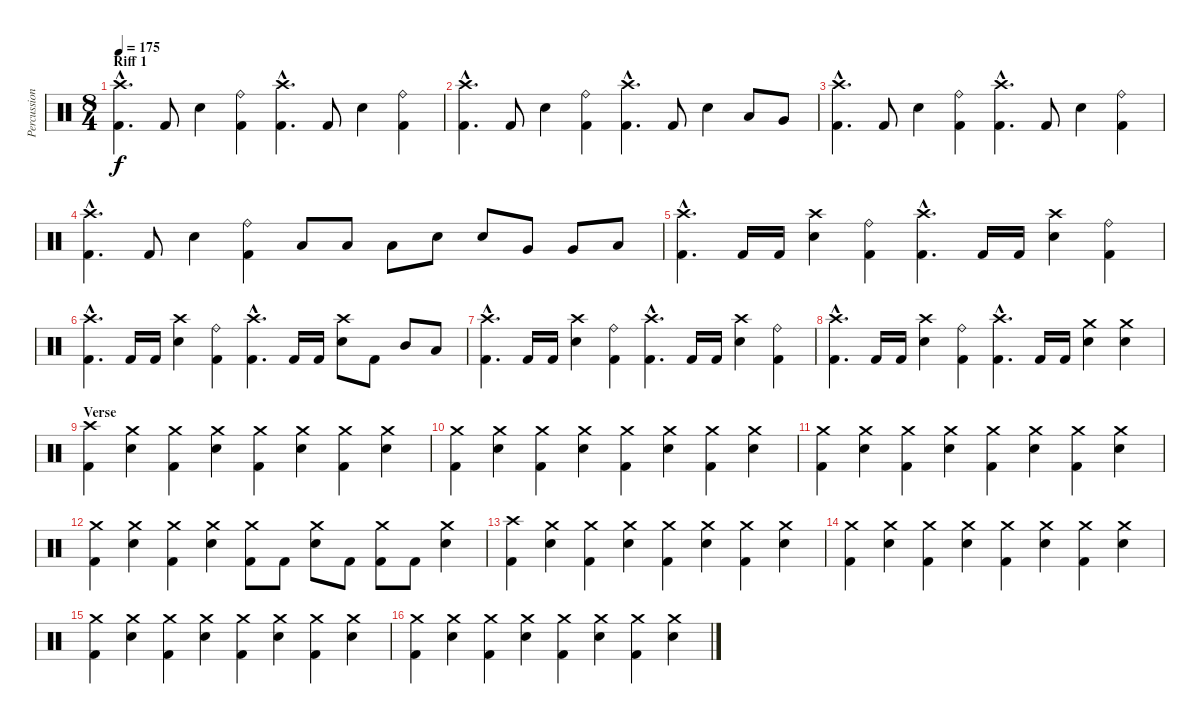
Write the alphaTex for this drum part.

\track ("Percussion" "Percussion") {instrument percussion}
\staff {score}
\articulation defaults
\ts (8 4)
\section ("" "Riff 1")
\tempo 175
\clef neutral
\ks c
("Kick (hit) 2"{hac} "Crash high (hit)"{hac}).4{d dy f} "Kick (hit) 2".8 "Electric Snare (hit)".4 ("Kick (hit) 2" "Ride (bell)").4 ("Kick (hit) 2"{hac} "Crash high (hit)"{hac}).4{d} "Kick (hit) 2".8 "Electric Snare (hit)".4 ("Kick (hit) 2" "Ride (bell)").4 |
("Kick (hit) 2"{hac} "Crash high (hit)"{hac}).4{d} "Kick (hit) 2".8 "Electric Snare (hit)".4 ("Kick (hit) 2" "Ride (bell)").4 ("Kick (hit) 2"{hac} "Crash high (hit)"{hac}).4{d} "Kick (hit) 2".8 "Electric Snare (hit)".4 "Low Tom (hit)".8 "Very Low Tom (hit)".8 |
("Kick (hit) 2"{hac} "Crash high (hit)"{hac}).4{d} "Kick (hit) 2".8 "Electric Snare (hit)".4 ("Kick (hit) 2" "Ride (bell)").4 ("Kick (hit) 2"{hac} "Crash high (hit)"{hac}).4{d} "Kick (hit) 2".8 "Electric Snare (hit)".4 ("Kick (hit) 2" "Ride (bell)").4 |
("Kick (hit) 2"{hac} "Crash high (hit)"{hac}).4{d} "Kick (hit) 2".8 "Electric Snare (hit)".4 ("Kick (hit) 2" "Ride (bell)").4 "Low Tom (hit)".8 "Low Tom (hit)".8 "Low Tom (hit)".8 "Electric Snare (hit)".8 "Electric Snare (hit)".8 "Very Low Tom (hit)".8 "Very Low Tom (hit)".8 "Low Floor Tom (hit)".8 |
("Kick (hit) 2"{hac} "Crash high (hit)"{hac}).4{d} "Kick (hit) 2".16 "Kick (hit) 2".16 ("Electric Snare (hit)" "Crash high (hit)").4 ("Kick (hit) 2" "Ride (bell)").4 ("Kick (hit) 2"{hac} "Crash high (hit)"{hac}).4{d} "Kick (hit) 2".16 "Kick (hit) 2".16 ("Electric Snare (hit)" "Crash high (hit)").4 ("Kick (hit) 2" "Ride (bell)").4 |
("Kick (hit) 2"{hac} "Crash high (hit)"{hac}).4{d} "Kick (hit) 2".16 "Kick (hit) 2".16 ("Electric Snare (hit)" "Crash high (hit)").4 ("Kick (hit) 2" "Ride (bell)").4 ("Kick (hit) 2"{hac} "Crash high (hit)"{hac}).4{d} "Kick (hit) 2".16 "Kick (hit) 2".16 ("Electric Snare (hit)" "Crash high (hit)").8 "Kick (hit) 2".8 "Mid Tom (hit)".8 "Low Tom (hit)".8 |
("Kick (hit) 2"{hac} "Crash high (hit)"{hac}).4{d} "Kick (hit) 2".16 "Kick (hit) 2".16 ("Electric Snare (hit)" "Crash high (hit)").4 ("Kick (hit) 2" "Ride (bell)").4 ("Kick (hit) 2"{hac} "Crash high (hit)"{hac}).4{d} "Kick (hit) 2".16 "Kick (hit) 2".16 ("Electric Snare (hit)" "Crash high (hit)").4 ("Kick (hit) 2" "Ride (bell)").4 |
("Kick (hit) 2"{hac} "Crash high (hit)"{hac}).4{d} "Kick (hit) 2".16 "Kick (hit) 2".16 ("Electric Snare (hit)" "Crash high (hit)").4 ("Kick (hit) 2" "Ride (bell)").4 ("Kick (hit) 2"{hac} "Crash high (hit)"{hac}).4{d} "Kick (hit) 2".16 "Kick (hit) 2".16 ("Electric Snare (hit)" "Crash medium (hit)").4 ("Electric Snare (hit)" "Crash medium (hit)").4 |
\section ("" "Verse")
("Kick (hit) 2" "Crash high (hit)").4 ("Electric Snare (hit)" "Crash medium (hit)").4 ("Kick (hit) 2" "Crash medium (hit)").4 ("Electric Snare (hit)" "Crash medium (hit)").4 ("Kick (hit) 2" "Crash medium (hit)").4 ("Electric Snare (hit)" "Crash medium (hit)").4 ("Kick (hit) 2" "Crash medium (hit)").4 ("Electric Snare (hit)" "Crash medium (hit)").4 |
("Kick (hit) 2" "Crash medium (hit)").4 ("Electric Snare (hit)" "Crash medium (hit)").4 ("Kick (hit) 2" "Crash medium (hit)").4 ("Electric Snare (hit)" "Crash medium (hit)").4 ("Kick (hit) 2" "Crash medium (hit)").4 ("Electric Snare (hit)" "Crash medium (hit)").4 ("Kick (hit) 2" "Crash medium (hit)").4 ("Electric Snare (hit)" "Crash medium (hit)").4 |
("Kick (hit) 2" "Crash medium (hit)").4 ("Electric Snare (hit)" "Crash medium (hit)").4 ("Kick (hit) 2" "Crash medium (hit)").4 ("Electric Snare (hit)" "Crash medium (hit)").4 ("Kick (hit) 2" "Crash medium (hit)").4 ("Electric Snare (hit)" "Crash medium (hit)").4 ("Kick (hit) 2" "Crash medium (hit)").4 ("Electric Snare (hit)" "Crash medium (hit)").4 |
("Kick (hit) 2" "Crash medium (hit)").4 ("Electric Snare (hit)" "Crash medium (hit)").4 ("Kick (hit) 2" "Crash medium (hit)").4 ("Electric Snare (hit)" "Crash medium (hit)").4 ("Kick (hit) 2" "Crash medium (hit)").8 "Kick (hit) 2".8 ("Electric Snare (hit)" "Crash medium (hit)").8 "Kick (hit) 2".8 ("Kick (hit) 2" "Crash medium (hit)").8 "Kick (hit) 2".8 ("Electric Snare (hit)" "Crash medium (hit)").4 |
("Kick (hit) 2" "Crash high (hit)").4 ("Electric Snare (hit)" "Crash medium (hit)").4 ("Kick (hit) 2" "Crash medium (hit)").4 ("Electric Snare (hit)" "Crash medium (hit)").4 ("Kick (hit) 2" "Crash medium (hit)").4 ("Electric Snare (hit)" "Crash medium (hit)").4 ("Kick (hit) 2" "Crash medium (hit)").4 ("Electric Snare (hit)" "Crash medium (hit)").4 |
("Kick (hit) 2" "Crash medium (hit)").4 ("Electric Snare (hit)" "Crash medium (hit)").4 ("Kick (hit) 2" "Crash medium (hit)").4 ("Electric Snare (hit)" "Crash medium (hit)").4 ("Kick (hit) 2" "Crash medium (hit)").4 ("Electric Snare (hit)" "Crash medium (hit)").4 ("Kick (hit) 2" "Crash medium (hit)").4 ("Electric Snare (hit)" "Crash medium (hit)").4 |
("Kick (hit) 2" "Crash medium (hit)").4 ("Electric Snare (hit)" "Crash medium (hit)").4 ("Kick (hit) 2" "Crash medium (hit)").4 ("Electric Snare (hit)" "Crash medium (hit)").4 ("Kick (hit) 2" "Crash medium (hit)").4 ("Electric Snare (hit)" "Crash medium (hit)").4 ("Kick (hit) 2" "Crash medium (hit)").4 ("Electric Snare (hit)" "Crash medium (hit)").4 |
("Kick (hit) 2" "Crash medium (hit)").4 ("Electric Snare (hit)" "Crash medium (hit)").4 ("Kick (hit) 2" "Crash medium (hit)").4 ("Electric Snare (hit)" "Crash medium (hit)").4 ("Kick (hit) 2" "Crash medium (hit)").4 ("Electric Snare (hit)" "Crash medium (hit)").4 ("Kick (hit) 2" "Crash medium (hit)").4 ("Electric Snare (hit)" "Crash medium (hit)").4
